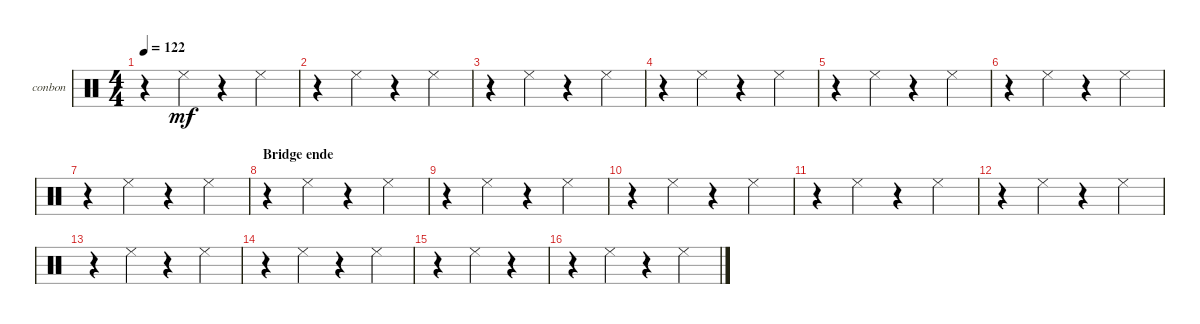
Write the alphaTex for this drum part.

\defaultSystemsLayout 4
\bracketExtendMode groupsimilarinstruments
\firstSystemTrackNameOrientation horizontal
\otherSystemsTrackNameOrientation horizontal
\track ("Bongos N Congas" "conbon") {instrument percussion}
\staff {score}
\articulation defaults
\ts (4 4)
\tempo 122
\clef neutral
\ks c
r.4{dy mf} "Cowbell low (tip)".4 r.4 "Cowbell low (tip)".4 |
r.4 "Cowbell low (tip)".4 r.4 "Cowbell low (tip)".4 |
r.4 "Cowbell low (tip)".4 r.4 "Cowbell low (tip)".4 |
r.4 "Cowbell low (tip)".4 r.4 "Cowbell low (tip)".4 |
r.4 "Cowbell low (tip)".4 r.4 "Cowbell low (tip)".4 |
r.4 "Cowbell low (tip)".4 r.4 "Cowbell low (tip)".4 |
r.4 "Cowbell low (tip)".4 r.4 "Cowbell low (tip)".4 |
\section ("" "Bridge ende")
r.4 "Cowbell low (tip)".4 r.4 "Cowbell low (tip)".4 |
r.4 "Cowbell low (tip)".4 r.4 "Cowbell low (tip)".4 |
r.4 "Cowbell low (tip)".4 r.4 "Cowbell low (tip)".4 |
r.4 "Cowbell low (tip)".4 r.4 "Cowbell low (tip)".4 |
r.4 "Cowbell low (tip)".4 r.4 "Cowbell low (tip)".4 |
r.4 "Cowbell low (tip)".4 r.4 "Cowbell low (tip)".4 |
r.4 "Cowbell low (tip)".4 r.4 "Cowbell low (tip)".4 |
r.4 "Cowbell low (tip)".4 r.4 |
r.4 "Cowbell low (tip)".4 r.4 "Cowbell low (tip)".4
